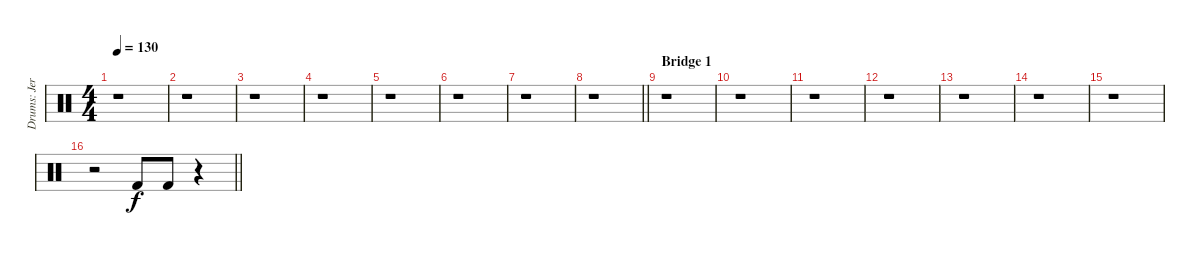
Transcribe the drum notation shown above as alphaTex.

\track ("Drums: Jere Luokkamäki" "Drums: Jer") {instrument percussion}
\staff {score}
\articulation defaults
\ts (4 4)
\tempo 130
\clef neutral
\ks aminor
r.1{dy f} |
r.1 |
r.1 |
r.1 |
r.1 |
r.1 |
r.1 |
\barLineRight lightlight
r.1 |
\section ("" "Bridge 1")
r.1 |
r.1 |
r.1 |
r.1 |
r.1 |
r.1 |
r.1 |
\barLineRight lightlight
r.2 "Kick (hit) 2".8 "Kick (hit) 2".8 r.4
